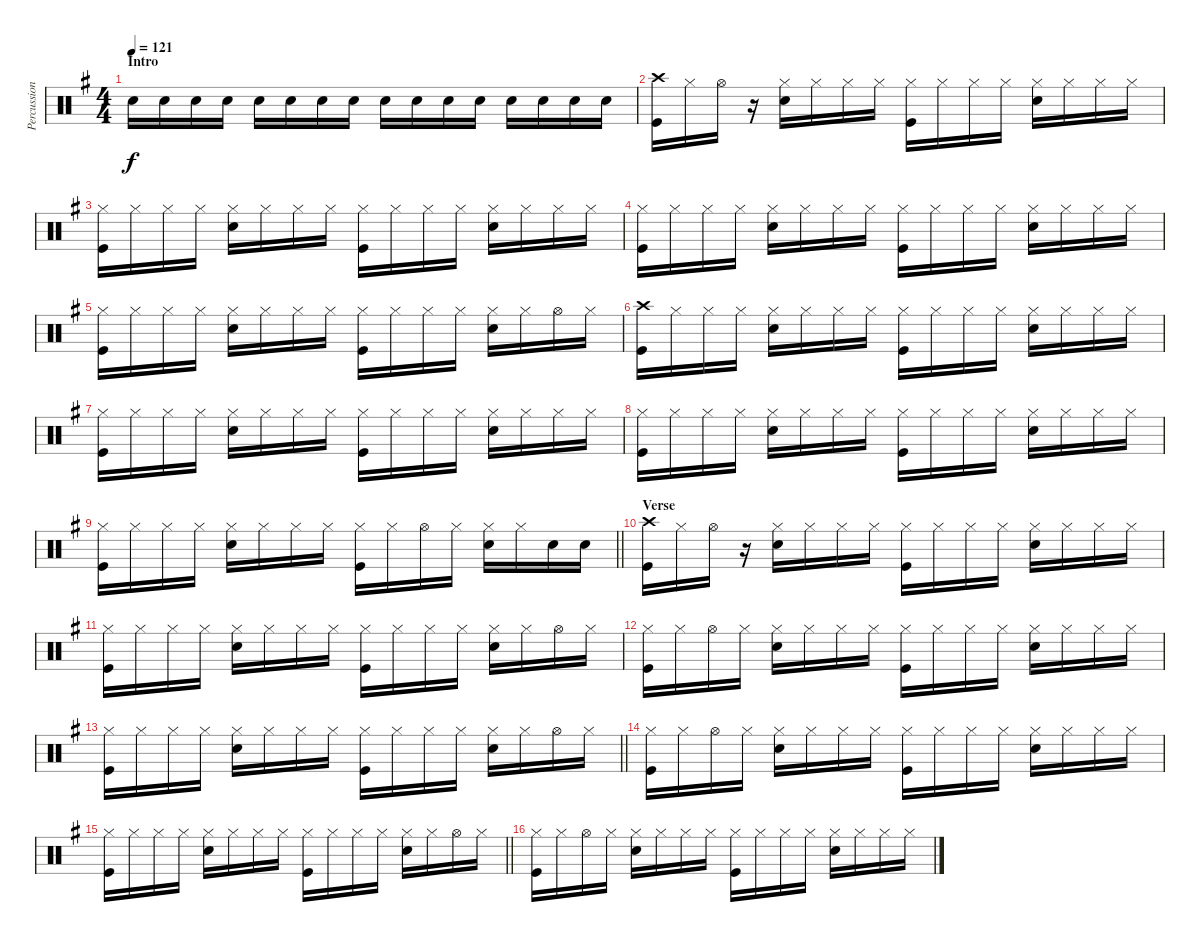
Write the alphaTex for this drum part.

\track ("Percussion" "Percussion") {instrument percussion}
\staff {score}
\articulation defaults
\ts (4 4)
\section ("" "Intro")
\tempo 121
\clef neutral
\ks g "Snare (hit) 2".16{dy f} "Snare (hit) 2".16 "Snare (hit) 2".16 "Snare (hit) 2".16 "Snare (hit) 2".16 "Snare (hit) 2".16 "Snare (hit) 2".16 "Snare (hit) 2".16 "Snare (hit) 2".16 "Snare (hit) 2".16 "Snare (hit) 2".16 "Snare (hit) 2".16 "Snare (hit) 2".16 "Snare (hit) 2".16 "Snare (hit) 2".16 "Snare (hit) 2".16
|
("Kick (hit)" "Crash high (hit)").16 "Hi-Hat (closed)".16 "Hi-Hat (open)".16 r.16 ("Hi-Hat (closed)" "Snare (hit) 2").16 "Hi-Hat (closed)".16 "Hi-Hat (closed)".16 "Hi-Hat (closed)".16 ("Hi-Hat (closed)" "Kick (hit)").16 "Hi-Hat (closed)".16 "Hi-Hat (closed)".16 "Hi-Hat (closed)".16 ("Hi-Hat (closed)" "Snare (hit) 2").16 "Hi-Hat (closed)".16 "Hi-Hat (closed)".16 "Hi-Hat (closed)".16 |
("Hi-Hat (closed)" "Kick (hit)").16 "Hi-Hat (closed)".16 "Hi-Hat (closed)".16 "Hi-Hat (closed)".16 ("Hi-Hat (closed)" "Snare (hit) 2").16 "Hi-Hat (closed)".16 "Hi-Hat (closed)".16 "Hi-Hat (closed)".16 ("Hi-Hat (closed)" "Kick (hit)").16 "Hi-Hat (closed)".16 "Hi-Hat (closed)".16 "Hi-Hat (closed)".16 ("Hi-Hat (closed)" "Snare (hit) 2").16 "Hi-Hat (closed)".16 "Hi-Hat (closed)".16 "Hi-Hat (closed)".16 |
("Hi-Hat (closed)" "Kick (hit)").16 "Hi-Hat (closed)".16 "Hi-Hat (closed)".16 "Hi-Hat (closed)".16 ("Hi-Hat (closed)" "Snare (hit) 2").16 "Hi-Hat (closed)".16 "Hi-Hat (closed)".16 "Hi-Hat (closed)".16 ("Hi-Hat (closed)" "Kick (hit)").16 "Hi-Hat (closed)".16 "Hi-Hat (closed)".16 "Hi-Hat (closed)".16 ("Hi-Hat (closed)" "Snare (hit) 2").16 "Hi-Hat (closed)".16 "Hi-Hat (closed)".16 "Hi-Hat (closed)".16 |
("Hi-Hat (closed)" "Kick (hit)").16 "Hi-Hat (closed)".16 "Hi-Hat (closed)".16 "Hi-Hat (closed)".16 ("Hi-Hat (closed)" "Snare (hit) 2").16 "Hi-Hat (closed)".16 "Hi-Hat (closed)".16 "Hi-Hat (closed)".16 ("Hi-Hat (closed)" "Kick (hit)").16 "Hi-Hat (closed)".16 "Hi-Hat (closed)".16 "Hi-Hat (closed)".16 ("Hi-Hat (closed)" "Snare (hit) 2").16 "Hi-Hat (closed)".16 "Hi-Hat (open)".16 "Hi-Hat (closed)".16 |
("Crash high (hit)" "Kick (hit)").16 "Hi-Hat (closed)".16 "Hi-Hat (closed)".16 "Hi-Hat (closed)".16 ("Hi-Hat (closed)" "Snare (hit) 2").16 "Hi-Hat (closed)".16 "Hi-Hat (closed)".16 "Hi-Hat (closed)".16 ("Hi-Hat (closed)" "Kick (hit)").16 "Hi-Hat (closed)".16 "Hi-Hat (closed)".16 "Hi-Hat (closed)".16 ("Hi-Hat (closed)" "Snare (hit) 2").16 "Hi-Hat (closed)".16 "Hi-Hat (closed)".16 "Hi-Hat (closed)".16 |
("Hi-Hat (closed)" "Kick (hit)").16 "Hi-Hat (closed)".16 "Hi-Hat (closed)".16 "Hi-Hat (closed)".16 ("Hi-Hat (closed)" "Snare (hit) 2").16 "Hi-Hat (closed)".16 "Hi-Hat (closed)".16 "Hi-Hat (closed)".16 ("Hi-Hat (closed)" "Kick (hit)").16 "Hi-Hat (closed)".16 "Hi-Hat (closed)".16 "Hi-Hat (closed)".16 ("Hi-Hat (closed)" "Snare (hit) 2").16 "Hi-Hat (closed)".16 "Hi-Hat (closed)".16 "Hi-Hat (closed)".16 |
("Hi-Hat (closed)" "Kick (hit)").16 "Hi-Hat (closed)".16 "Hi-Hat (closed)".16 "Hi-Hat (closed)".16 ("Hi-Hat (closed)" "Snare (hit) 2").16 "Hi-Hat (closed)".16 "Hi-Hat (closed)".16 "Hi-Hat (closed)".16 ("Hi-Hat (closed)" "Kick (hit)").16 "Hi-Hat (closed)".16 "Hi-Hat (closed)".16 "Hi-Hat (closed)".16 ("Hi-Hat (closed)" "Snare (hit) 2").16 "Hi-Hat (closed)".16 "Hi-Hat (closed)".16 "Hi-Hat (closed)".16 |
\barLineRight lightlight
("Hi-Hat (closed)" "Kick (hit)").16 "Hi-Hat (closed)".16 "Hi-Hat (closed)".16 "Hi-Hat (closed)".16 ("Hi-Hat (closed)" "Snare (hit) 2").16 "Hi-Hat (closed)".16 "Hi-Hat (closed)".16 "Hi-Hat (closed)".16 ("Hi-Hat (closed)" "Kick (hit)").16 "Hi-Hat (closed)".16 "Hi-Hat (open)".16 "Hi-Hat (closed)".16 ("Hi-Hat (closed)" "Snare (hit) 2").16 "Hi-Hat (closed)".16 "Snare (hit) 2".16 "Snare (hit) 2".16 |
\section ("" "Verse")
("Kick (hit)" "Crash high (hit)").16 "Hi-Hat (closed)".16 "Hi-Hat (open)".16 r.16 ("Hi-Hat (closed)" "Snare (hit) 2").16 "Hi-Hat (closed)".16 "Hi-Hat (closed)".16 "Hi-Hat (closed)".16 ("Hi-Hat (closed)" "Kick (hit)").16 "Hi-Hat (closed)".16 "Hi-Hat (closed)".16 "Hi-Hat (closed)".16 ("Hi-Hat (closed)" "Snare (hit) 2").16 "Hi-Hat (closed)".16 "Hi-Hat (closed)".16 "Hi-Hat (closed)".16 |
("Hi-Hat (closed)" "Kick (hit)").16 "Hi-Hat (closed)".16 "Hi-Hat (closed)".16 "Hi-Hat (closed)".16 ("Hi-Hat (closed)" "Snare (hit) 2").16 "Hi-Hat (closed)".16 "Hi-Hat (closed)".16 "Hi-Hat (closed)".16 ("Hi-Hat (closed)" "Kick (hit)").16 "Hi-Hat (closed)".16 "Hi-Hat (closed)".16 "Hi-Hat (closed)".16 ("Hi-Hat (closed)" "Snare (hit) 2").16 "Hi-Hat (closed)".16 "Hi-Hat (open)".16 "Hi-Hat (closed)".16 |
("Hi-Hat (closed)" "Kick (hit)").16 "Hi-Hat (closed)".16 "Hi-Hat (open)".16 "Hi-Hat (closed)".16 ("Hi-Hat (closed)" "Snare (hit) 2").16 "Hi-Hat (closed)".16 "Hi-Hat (closed)".16 "Hi-Hat (closed)".16 ("Hi-Hat (closed)" "Kick (hit)").16 "Hi-Hat (closed)".16 "Hi-Hat (closed)".16 "Hi-Hat (closed)".16 ("Hi-Hat (closed)" "Snare (hit) 2").16 "Hi-Hat (closed)".16 "Hi-Hat (closed)".16 "Hi-Hat (closed)".16 |
\barLineRight lightlight
("Hi-Hat (closed)" "Kick (hit)").16 "Hi-Hat (closed)".16 "Hi-Hat (closed)".16 "Hi-Hat (closed)".16 ("Hi-Hat (closed)" "Snare (hit) 2").16 "Hi-Hat (closed)".16 "Hi-Hat (closed)".16 "Hi-Hat (closed)".16 ("Hi-Hat (closed)" "Kick (hit)").16 "Hi-Hat (closed)".16 "Hi-Hat (closed)".16 "Hi-Hat (closed)".16 ("Hi-Hat (closed)" "Snare (hit) 2").16 "Hi-Hat (closed)".16 "Hi-Hat (open)".16 "Hi-Hat (closed)".16 |
("Hi-Hat (closed)" "Kick (hit)").16 "Hi-Hat (closed)".16 "Hi-Hat (open)".16 "Hi-Hat (closed)".16 ("Hi-Hat (closed)" "Snare (hit) 2").16 "Hi-Hat (closed)".16 "Hi-Hat (closed)".16 "Hi-Hat (closed)".16 ("Hi-Hat (closed)" "Kick (hit)").16 "Hi-Hat (closed)".16 "Hi-Hat (closed)".16 "Hi-Hat (closed)".16 ("Hi-Hat (closed)" "Snare (hit) 2").16 "Hi-Hat (closed)".16 "Hi-Hat (closed)".16 "Hi-Hat (closed)".16 |
\barLineRight lightlight
("Hi-Hat (closed)" "Kick (hit)").16 "Hi-Hat (closed)".16 "Hi-Hat (closed)".16 "Hi-Hat (closed)".16 ("Hi-Hat (closed)" "Snare (hit) 2").16 "Hi-Hat (closed)".16 "Hi-Hat (closed)".16 "Hi-Hat (closed)".16 ("Hi-Hat (closed)" "Kick (hit)").16 "Hi-Hat (closed)".16 "Hi-Hat (closed)".16 "Hi-Hat (closed)".16 ("Hi-Hat (closed)" "Snare (hit) 2").16 "Hi-Hat (closed)".16 "Hi-Hat (open)".16 "Hi-Hat (closed)".16 |
("Hi-Hat (closed)" "Kick (hit)").16 "Hi-Hat (closed)".16 "Hi-Hat (open)".16 "Hi-Hat (closed)".16 ("Hi-Hat (closed)" "Snare (hit) 2").16 "Hi-Hat (closed)".16 "Hi-Hat (closed)".16 "Hi-Hat (closed)".16 ("Hi-Hat (closed)" "Kick (hit)").16 "Hi-Hat (closed)".16 "Hi-Hat (closed)".16 "Hi-Hat (closed)".16 ("Hi-Hat (closed)" "Snare (hit) 2").16 "Hi-Hat (closed)".16 "Hi-Hat (closed)".16 "Hi-Hat (closed)".16
